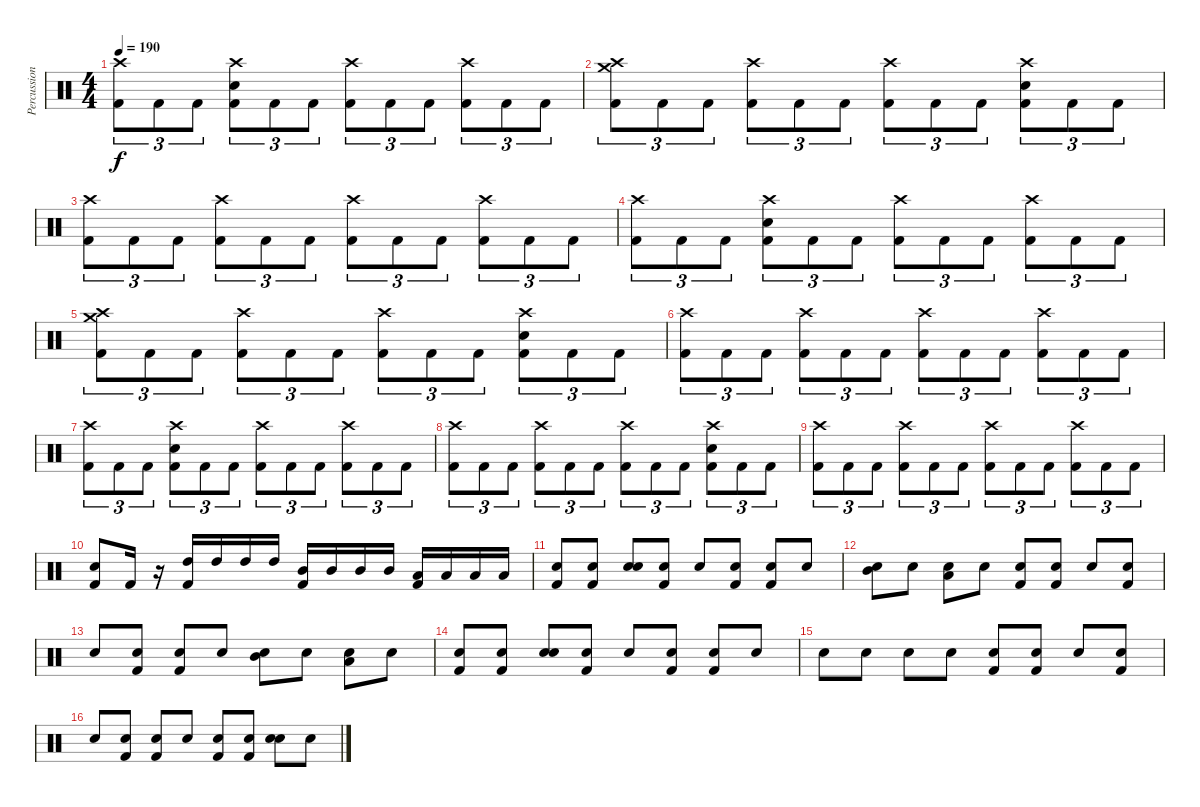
\track ("Percussion" "Percussion") {instrument percussion}
\staff {score}
\articulation defaults
\ts (4 4)
\tempo 190
\clef neutral
\ks c
("Crash high (hit)" "Kick (hit) 2").8{tu (3 2) dy f} "Kick (hit) 2".8{tu (3 2)} "Kick (hit) 2".8{tu (3 2)} ("Crash high (hit)" "Snare (hit) 2" "Kick (hit) 2").8{tu (3 2)} "Kick (hit) 2".8{tu (3 2)} "Kick (hit) 2".8{tu (3 2)} ("Crash high (hit)" "Kick (hit) 2").8{tu (3 2)} "Kick (hit) 2".8{tu (3 2)} "Kick (hit) 2".8{tu (3 2)} ("Crash high (hit)" "Kick (hit) 2").8{tu (3 2)} "Kick (hit) 2".8{tu (3 2)} "Kick (hit) 2".8{tu (3 2)} |
("Crash medium (hit)" "Crash high (hit)" "Kick (hit) 2").8{tu (3 2)} "Kick (hit) 2".8{tu (3 2)} "Kick (hit) 2".8{tu (3 2)} ("Crash high (hit)" "Kick (hit) 2").8{tu (3 2)} "Kick (hit) 2".8{tu (3 2)} "Kick (hit) 2".8{tu (3 2)} ("Crash high (hit)" "Kick (hit) 2").8{tu (3 2)} "Kick (hit) 2".8{tu (3 2)} "Kick (hit) 2".8{tu (3 2)} ("Crash high (hit)" "Snare (hit) 2" "Kick (hit) 2").8{tu (3 2)} "Kick (hit) 2".8{tu (3 2)} "Kick (hit) 2".8{tu (3 2)} |
("Crash high (hit)" "Kick (hit) 2").8{tu (3 2)} "Kick (hit) 2".8{tu (3 2)} "Kick (hit) 2".8{tu (3 2)} ("Crash high (hit)" "Kick (hit) 2").8{tu (3 2)} "Kick (hit) 2".8{tu (3 2)} "Kick (hit) 2".8{tu (3 2)} ("Crash high (hit)" "Kick (hit) 2").8{tu (3 2)} "Kick (hit) 2".8{tu (3 2)} "Kick (hit) 2".8{tu (3 2)} ("Crash high (hit)" "Kick (hit) 2").8{tu (3 2)} "Kick (hit) 2".8{tu (3 2)} "Kick (hit) 2".8{tu (3 2)} |
("Crash high (hit)" "Kick (hit) 2").8{tu (3 2)} "Kick (hit) 2".8{tu (3 2)} "Kick (hit) 2".8{tu (3 2)} ("Crash high (hit)" "Snare (hit) 2" "Kick (hit) 2").8{tu (3 2)} "Kick (hit) 2".8{tu (3 2)} "Kick (hit) 2".8{tu (3 2)} ("Crash high (hit)" "Kick (hit) 2").8{tu (3 2)} "Kick (hit) 2".8{tu (3 2)} "Kick (hit) 2".8{tu (3 2)} ("Crash high (hit)" "Kick (hit) 2").8{tu (3 2)} "Kick (hit) 2".8{tu (3 2)} "Kick (hit) 2".8{tu (3 2)} |
("Crash medium (hit)" "Crash high (hit)" "Kick (hit) 2").8{tu (3 2)} "Kick (hit) 2".8{tu (3 2)} "Kick (hit) 2".8{tu (3 2)} ("Crash high (hit)" "Kick (hit) 2").8{tu (3 2)} "Kick (hit) 2".8{tu (3 2)} "Kick (hit) 2".8{tu (3 2)} ("Crash high (hit)" "Kick (hit) 2").8{tu (3 2)} "Kick (hit) 2".8{tu (3 2)} "Kick (hit) 2".8{tu (3 2)} ("Crash high (hit)" "Snare (hit) 2" "Kick (hit) 2").8{tu (3 2)} "Kick (hit) 2".8{tu (3 2)} "Kick (hit) 2".8{tu (3 2)} |
("Crash high (hit)" "Kick (hit) 2").8{tu (3 2)} "Kick (hit) 2".8{tu (3 2)} "Kick (hit) 2".8{tu (3 2)} ("Crash high (hit)" "Kick (hit) 2").8{tu (3 2)} "Kick (hit) 2".8{tu (3 2)} "Kick (hit) 2".8{tu (3 2)} ("Crash high (hit)" "Kick (hit) 2").8{tu (3 2)} "Kick (hit) 2".8{tu (3 2)} "Kick (hit) 2".8{tu (3 2)} ("Crash high (hit)" "Kick (hit) 2").8{tu (3 2)} "Kick (hit) 2".8{tu (3 2)} "Kick (hit) 2".8{tu (3 2)} |
("Crash high (hit)" "Kick (hit) 2").8{tu (3 2)} "Kick (hit) 2".8{tu (3 2)} "Kick (hit) 2".8{tu (3 2)} ("Crash high (hit)" "Snare (hit) 2" "Kick (hit) 2").8{tu (3 2)} "Kick (hit) 2".8{tu (3 2)} "Kick (hit) 2".8{tu (3 2)} ("Crash high (hit)" "Kick (hit) 2").8{tu (3 2)} "Kick (hit) 2".8{tu (3 2)} "Kick (hit) 2".8{tu (3 2)} ("Crash high (hit)" "Kick (hit) 2").8{tu (3 2)} "Kick (hit) 2".8{tu (3 2)} "Kick (hit) 2".8{tu (3 2)} |
("Crash high (hit)" "Kick (hit) 2").8{tu (3 2)} "Kick (hit) 2".8{tu (3 2)} "Kick (hit) 2".8{tu (3 2)} ("Crash high (hit)" "Kick (hit) 2").8{tu (3 2)} "Kick (hit) 2".8{tu (3 2)} "Kick (hit) 2".8{tu (3 2)} ("Crash high (hit)" "Kick (hit) 2").8{tu (3 2)} "Kick (hit) 2".8{tu (3 2)} "Kick (hit) 2".8{tu (3 2)} ("Crash high (hit)" "Snare (hit) 2" "Kick (hit) 2").8{tu (3 2)} "Kick (hit) 2".8{tu (3 2)} "Kick (hit) 2".8{tu (3 2)} |
("Crash high (hit)" "Kick (hit) 2").8{tu (3 2)} "Kick (hit) 2".8{tu (3 2)} "Kick (hit) 2".8{tu (3 2)} ("Crash high (hit)" "Kick (hit) 2").8{tu (3 2)} "Kick (hit) 2".8{tu (3 2)} "Kick (hit) 2".8{tu (3 2)} ("Crash high (hit)" "Kick (hit) 2").8{tu (3 2)} "Kick (hit) 2".8{tu (3 2)} "Kick (hit) 2".8{tu (3 2)} ("Crash high (hit)" "Kick (hit) 2").8{tu (3 2)} "Kick (hit) 2".8{tu (3 2)} "Kick (hit) 2".8{tu (3 2)} |
("Kick (hit) 2" "Snare (hit)").8 "Kick (hit) 2".16 r.16 ("High Tom (hit)" "Kick (hit) 2").16 "High Tom (hit)".16 "High Tom (hit)".16 "High Tom (hit)".16 ("Mid Tom (hit)" "Kick (hit) 2").16 "Mid Tom (hit)".16 "Mid Tom (hit)".16 "Mid Tom (hit)".16 ("Low Tom (hit)" "Kick (hit) 2").16 "Low Tom (hit)".16 "Low Tom (hit)".16 "Low Tom (hit)".16 |
("Snare (hit) 2" "Kick (hit) 2").8 ("Snare (hit) 2" "Kick (hit) 2").8 ("Snare (hit)" "Snare (hit)").8 ("Snare (hit) 2" "Kick (hit) 2").8 "Snare (hit)".8 ("Snare (hit) 2" "Kick (hit) 2").8 ("Snare (hit) 2" "Kick (hit) 2").8 "Snare (hit)".8 |
("Mid Tom (hit)" "Snare (hit)").8 "Snare (hit)".8 ("Low Tom (hit)" "Snare (hit)").8 "Snare (hit)".8 ("Snare (hit) 2" "Kick (hit) 2").8 ("Snare (hit) 2" "Kick (hit) 2").8 "Snare (hit)".8 ("Snare (hit) 2" "Kick (hit) 2").8 |
"Snare (hit)".8 ("Snare (hit) 2" "Kick (hit) 2").8 ("Snare (hit) 2" "Kick (hit) 2").8 "Snare (hit)".8 ("Mid Tom (hit)" "Snare (hit)").8 "Snare (hit)".8 ("Low Tom (hit)" "Snare (hit)").8 "Snare (hit)".8 |
("Snare (hit) 2" "Kick (hit) 2").8 ("Snare (hit) 2" "Kick (hit) 2").8 ("Snare (hit)" "Snare (hit)").8 ("Snare (hit) 2" "Kick (hit) 2").8 "Snare (hit)".8 ("Snare (hit) 2" "Kick (hit) 2").8 ("Snare (hit) 2" "Kick (hit) 2").8 "Snare (hit)".8 |
"Snare (hit)".8 "Snare (hit)".8 "Snare (hit)".8 "Snare (hit)".8 ("Snare (hit) 2" "Kick (hit) 2").8 ("Snare (hit) 2" "Kick (hit) 2").8 "Snare (hit)".8 ("Snare (hit) 2" "Kick (hit) 2").8 |
"Snare (hit)".8 ("Snare (hit) 2" "Kick (hit) 2").8 ("Snare (hit) 2" "Kick (hit) 2").8 "Snare (hit)".8 ("Kick (hit) 2" "Snare (hit)").8 ("Kick (hit) 2" "Snare (hit)").8 ("Snare (hit) 2" "Snare (hit)").8 "Snare (hit)".8
